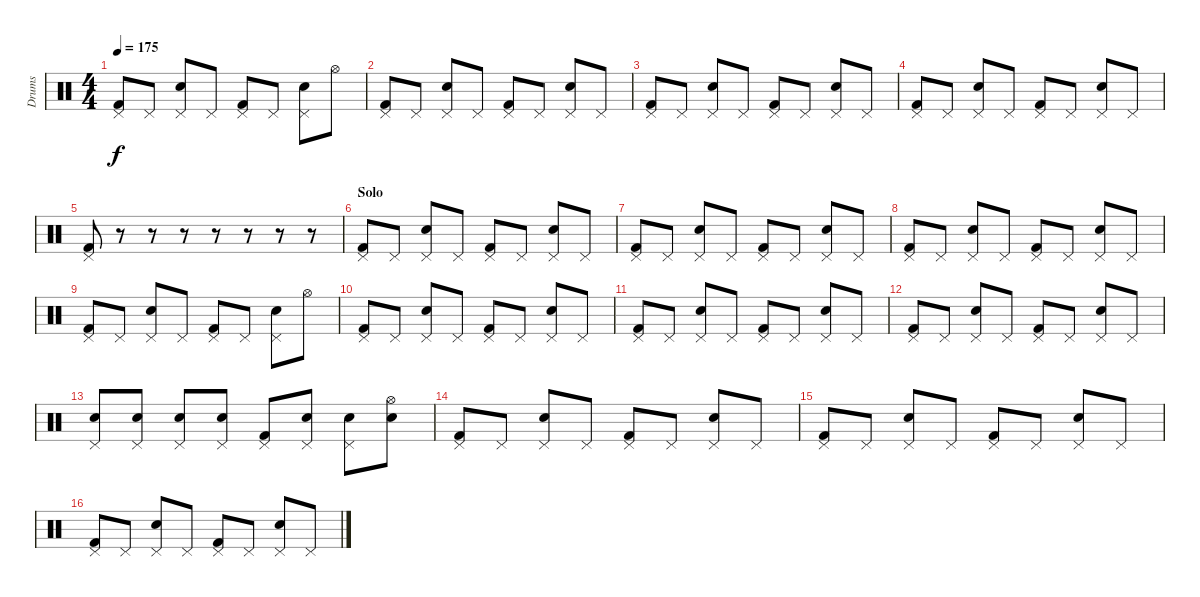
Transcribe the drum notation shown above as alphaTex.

\track ("Drums" "Drums") {instrument percussion}
\staff {score}
\articulation defaults
\ts (4 4)
\tempo 175
\clef neutral
\ks c
("Pedal Hi-Hat (hit)" "Kick (hit) 2").8{dy f} "Pedal Hi-Hat (hit)".8 ("Pedal Hi-Hat (hit)" "Snare (hit) 2").8 "Pedal Hi-Hat (hit)".8 ("Pedal Hi-Hat (hit)" "Kick (hit) 2").8 "Pedal Hi-Hat (hit)".8 ("Pedal Hi-Hat (hit)" "Snare (hit) 2").8 "Hi-Hat (open)".8 |
("Pedal Hi-Hat (hit)" "Kick (hit) 2").8 "Pedal Hi-Hat (hit)".8 ("Pedal Hi-Hat (hit)" "Snare (hit) 2").8 "Pedal Hi-Hat (hit)".8 ("Pedal Hi-Hat (hit)" "Kick (hit) 2").8 "Pedal Hi-Hat (hit)".8 ("Pedal Hi-Hat (hit)" "Snare (hit) 2").8 "Pedal Hi-Hat (hit)".8 |
("Pedal Hi-Hat (hit)" "Kick (hit) 2").8 "Pedal Hi-Hat (hit)".8 ("Pedal Hi-Hat (hit)" "Snare (hit) 2").8 "Pedal Hi-Hat (hit)".8 ("Pedal Hi-Hat (hit)" "Kick (hit) 2").8 "Pedal Hi-Hat (hit)".8 ("Pedal Hi-Hat (hit)" "Snare (hit) 2").8 "Pedal Hi-Hat (hit)".8 |
("Pedal Hi-Hat (hit)" "Kick (hit) 2").8 "Pedal Hi-Hat (hit)".8 ("Pedal Hi-Hat (hit)" "Snare (hit) 2").8 "Pedal Hi-Hat (hit)".8 ("Pedal Hi-Hat (hit)" "Kick (hit) 2").8 "Pedal Hi-Hat (hit)".8 ("Pedal Hi-Hat (hit)" "Snare (hit) 2").8 "Pedal Hi-Hat (hit)".8 |
("Pedal Hi-Hat (hit)" "Kick (hit) 2").8 r.8 r.8 r.8 r.8 r.8 r.8 r.8 |
\section ("" "Solo")
("Pedal Hi-Hat (hit)" "Kick (hit) 2").8 "Pedal Hi-Hat (hit)".8 ("Pedal Hi-Hat (hit)" "Snare (hit) 2").8 "Pedal Hi-Hat (hit)".8 ("Pedal Hi-Hat (hit)" "Kick (hit) 2").8 "Pedal Hi-Hat (hit)".8 ("Pedal Hi-Hat (hit)" "Snare (hit) 2").8 "Pedal Hi-Hat (hit)".8 |
("Pedal Hi-Hat (hit)" "Kick (hit) 2").8 "Pedal Hi-Hat (hit)".8 ("Pedal Hi-Hat (hit)" "Snare (hit) 2").8 "Pedal Hi-Hat (hit)".8 ("Pedal Hi-Hat (hit)" "Kick (hit) 2").8 "Pedal Hi-Hat (hit)".8 ("Pedal Hi-Hat (hit)" "Snare (hit) 2").8 "Pedal Hi-Hat (hit)".8 |
("Pedal Hi-Hat (hit)" "Kick (hit) 2").8 "Pedal Hi-Hat (hit)".8 ("Pedal Hi-Hat (hit)" "Snare (hit) 2").8 "Pedal Hi-Hat (hit)".8 ("Pedal Hi-Hat (hit)" "Kick (hit) 2").8 "Pedal Hi-Hat (hit)".8 ("Pedal Hi-Hat (hit)" "Snare (hit) 2").8 "Pedal Hi-Hat (hit)".8 |
("Pedal Hi-Hat (hit)" "Kick (hit) 2").8 "Pedal Hi-Hat (hit)".8 ("Pedal Hi-Hat (hit)" "Snare (hit) 2").8 "Pedal Hi-Hat (hit)".8 ("Pedal Hi-Hat (hit)" "Kick (hit) 2").8 "Pedal Hi-Hat (hit)".8 ("Pedal Hi-Hat (hit)" "Snare (hit) 2").8 "Hi-Hat (open)".8 |
("Pedal Hi-Hat (hit)" "Kick (hit) 2").8 "Pedal Hi-Hat (hit)".8 ("Pedal Hi-Hat (hit)" "Snare (hit) 2").8 "Pedal Hi-Hat (hit)".8 ("Pedal Hi-Hat (hit)" "Kick (hit) 2").8 "Pedal Hi-Hat (hit)".8 ("Pedal Hi-Hat (hit)" "Snare (hit) 2").8 "Pedal Hi-Hat (hit)".8 |
("Pedal Hi-Hat (hit)" "Kick (hit) 2").8 "Pedal Hi-Hat (hit)".8 ("Pedal Hi-Hat (hit)" "Snare (hit) 2").8 "Pedal Hi-Hat (hit)".8 ("Pedal Hi-Hat (hit)" "Kick (hit) 2").8 "Pedal Hi-Hat (hit)".8 ("Pedal Hi-Hat (hit)" "Snare (hit) 2").8 "Pedal Hi-Hat (hit)".8 |
("Pedal Hi-Hat (hit)" "Kick (hit) 2").8 "Pedal Hi-Hat (hit)".8 ("Pedal Hi-Hat (hit)" "Snare (hit) 2").8 "Pedal Hi-Hat (hit)".8 ("Pedal Hi-Hat (hit)" "Kick (hit) 2").8 "Pedal Hi-Hat (hit)".8 ("Pedal Hi-Hat (hit)" "Snare (hit) 2").8 "Pedal Hi-Hat (hit)".8 |
("Pedal Hi-Hat (hit)" "Snare (hit) 2").8 ("Pedal Hi-Hat (hit)" "Snare (hit) 2").8 ("Pedal Hi-Hat (hit)" "Snare (hit) 2").8 ("Pedal Hi-Hat (hit)" "Snare (hit) 2").8 ("Pedal Hi-Hat (hit)" "Kick (hit) 2").8 ("Pedal Hi-Hat (hit)" "Snare (hit) 2").8 ("Pedal Hi-Hat (hit)" "Snare (hit) 2").8 ("Hi-Hat (open)" "Snare (hit) 2").8 |
("Pedal Hi-Hat (hit)" "Kick (hit) 2").8 "Pedal Hi-Hat (hit)".8 ("Pedal Hi-Hat (hit)" "Snare (hit) 2").8 "Pedal Hi-Hat (hit)".8 ("Pedal Hi-Hat (hit)" "Kick (hit) 2").8 "Pedal Hi-Hat (hit)".8 ("Pedal Hi-Hat (hit)" "Snare (hit) 2").8 "Pedal Hi-Hat (hit)".8 |
("Pedal Hi-Hat (hit)" "Kick (hit) 2").8 "Pedal Hi-Hat (hit)".8 ("Pedal Hi-Hat (hit)" "Snare (hit) 2").8 "Pedal Hi-Hat (hit)".8 ("Pedal Hi-Hat (hit)" "Kick (hit) 2").8 "Pedal Hi-Hat (hit)".8 ("Pedal Hi-Hat (hit)" "Snare (hit) 2").8 "Pedal Hi-Hat (hit)".8 |
("Pedal Hi-Hat (hit)" "Kick (hit) 2").8 "Pedal Hi-Hat (hit)".8 ("Pedal Hi-Hat (hit)" "Snare (hit) 2").8 "Pedal Hi-Hat (hit)".8 ("Pedal Hi-Hat (hit)" "Kick (hit) 2").8 "Pedal Hi-Hat (hit)".8 ("Pedal Hi-Hat (hit)" "Snare (hit) 2").8 "Pedal Hi-Hat (hit)".8
